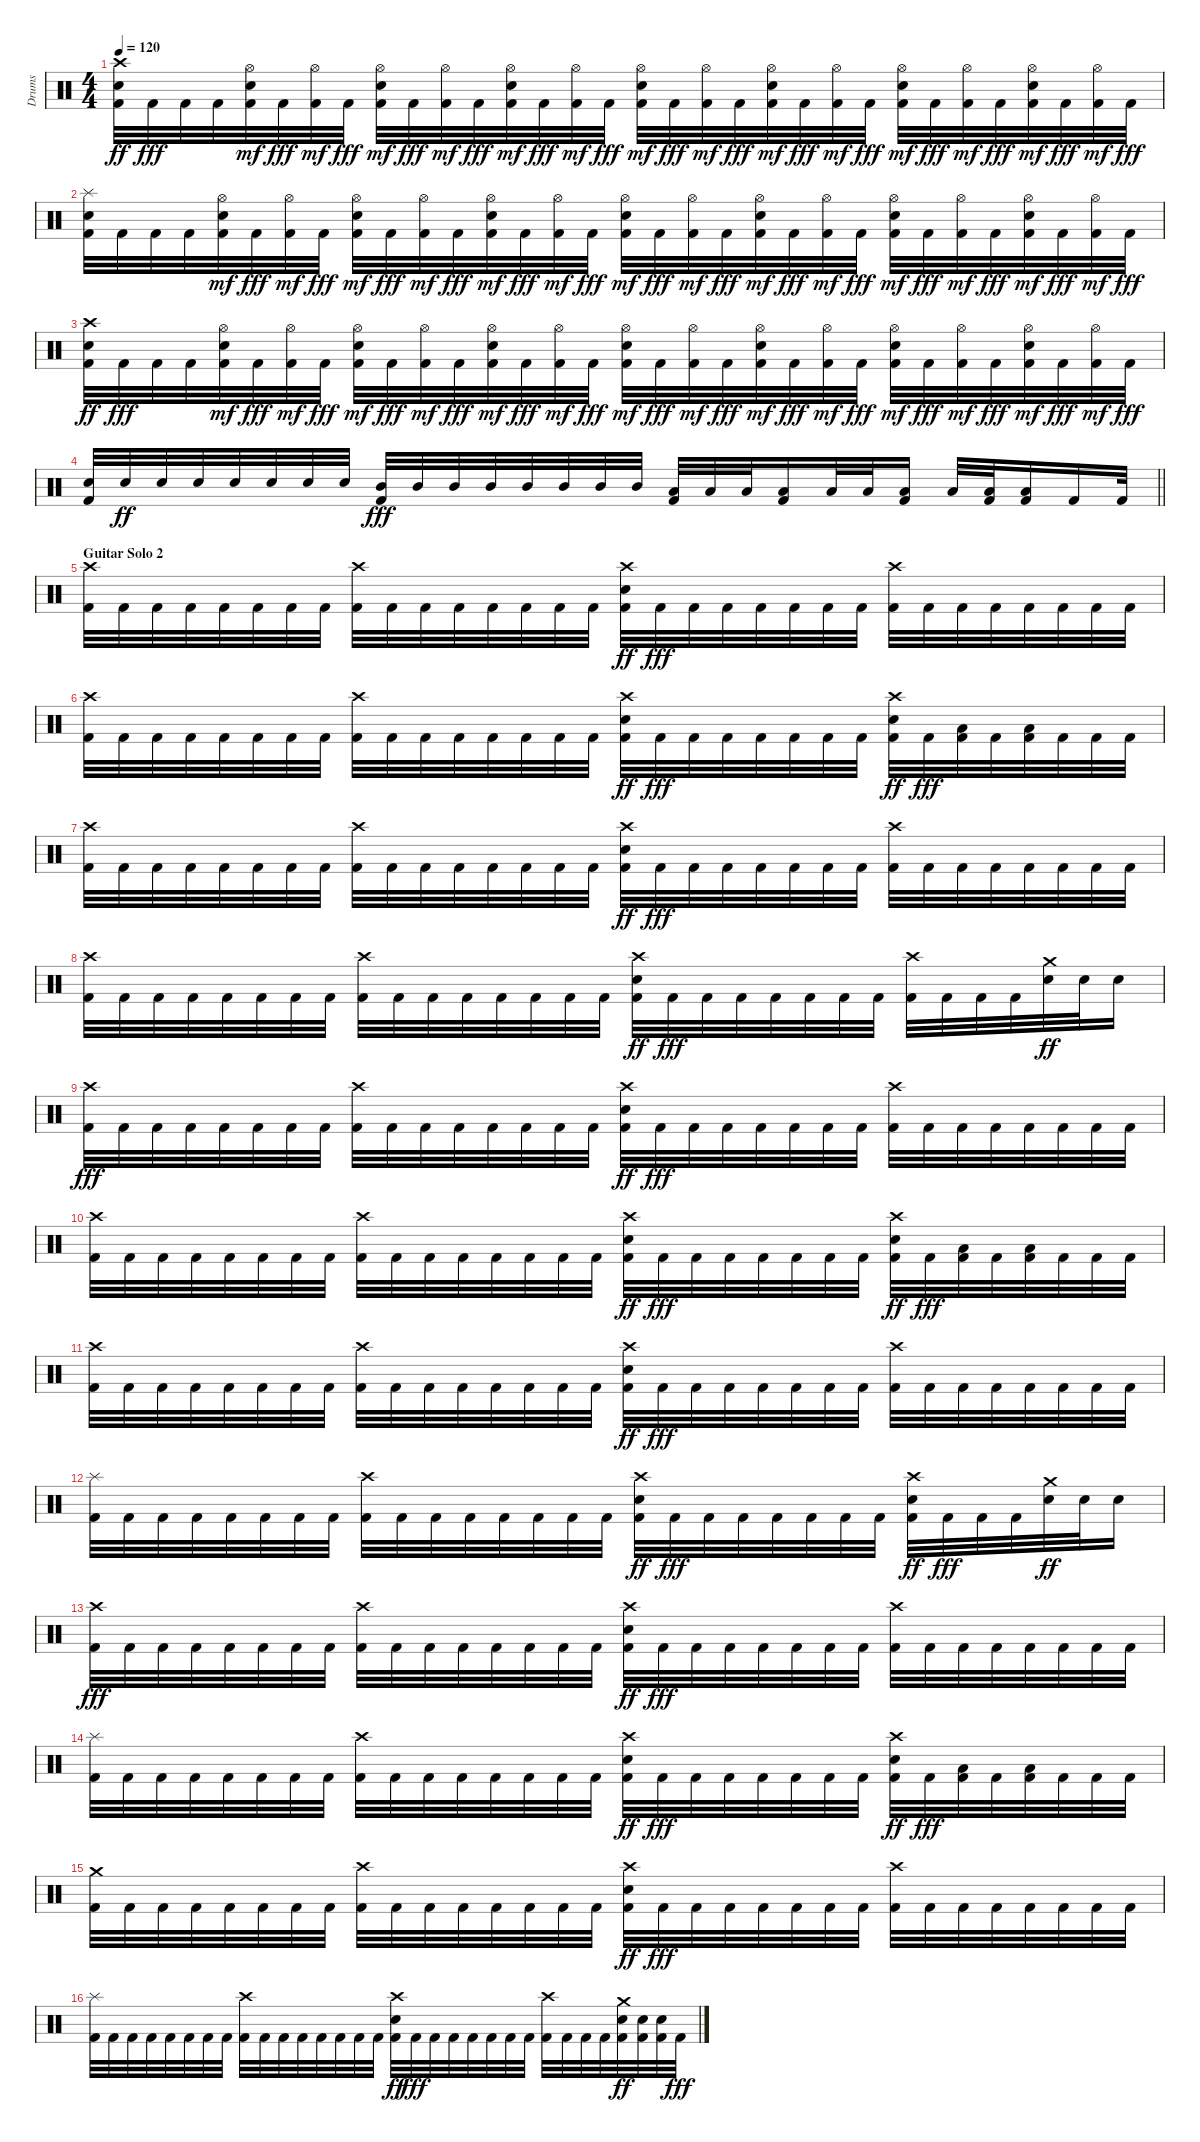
\track ("Drums" "Drums") {instrument percussion}
\staff {score}
\articulation defaults
\ts (4 4)
\tempo 120
\clef neutral
\ks c
("Kick (hit) 2" "Snare (hit) 2" "Crash high (hit)").32{dy ff} "Kick (hit) 2".32{dy fff} "Kick (hit) 2".32 "Kick (hit) 2".32 ("Kick (hit) 2" "Snare (hit) 2" "Hi-Hat (open)").32{dy mf} "Kick (hit) 2".32{dy fff} ("Kick (hit) 2" "Hi-Hat (open)").32{dy mf} "Kick (hit) 2".32{dy fff} ("Kick (hit) 2" "Snare (hit) 2" "Hi-Hat (open)").32{dy mf} "Kick (hit) 2".32{dy fff} ("Kick (hit) 2" "Hi-Hat (open)").32{dy mf} "Kick (hit) 2".32{dy fff} ("Kick (hit) 2" "Snare (hit) 2" "Hi-Hat (open)").32{dy mf} "Kick (hit) 2".32{dy fff} ("Kick (hit) 2" "Hi-Hat (open)").32{dy mf} "Kick (hit) 2".32{dy fff} ("Kick (hit) 2" "Snare (hit) 2" "Hi-Hat (open)").32{dy mf} "Kick (hit) 2".32{dy fff} ("Kick (hit) 2" "Hi-Hat (open)").32{dy mf} "Kick (hit) 2".32{dy fff} ("Kick (hit) 2" "Snare (hit) 2" "Hi-Hat (open)").32{dy mf} "Kick (hit) 2".32{dy fff} ("Kick (hit) 2" "Hi-Hat (open)").32{dy mf} "Kick (hit) 2".32{dy fff} ("Kick (hit) 2" "Snare (hit) 2" "Hi-Hat (open)").32{dy mf} "Kick (hit) 2".32{dy fff} ("Kick (hit) 2" "Hi-Hat (open)").32{dy mf} "Kick (hit) 2".32{dy fff} ("Kick (hit) 2" "Snare (hit) 2" "Hi-Hat (open)").32{dy mf} "Kick (hit) 2".32{dy fff} ("Kick (hit) 2" "Hi-Hat (open)").32{dy mf} "Kick (hit) 2".32{dy fff} |
("Kick (hit) 2" "Snare (hit) 2" "Splash (hit)").32 "Kick (hit) 2".32 "Kick (hit) 2".32 "Kick (hit) 2".32 ("Kick (hit) 2" "Snare (hit) 2" "Hi-Hat (open)").32{dy mf} "Kick (hit) 2".32{dy fff} ("Kick (hit) 2" "Hi-Hat (open)").32{dy mf} "Kick (hit) 2".32{dy fff} ("Kick (hit) 2" "Snare (hit) 2" "Hi-Hat (open)").32{dy mf} "Kick (hit) 2".32{dy fff} ("Kick (hit) 2" "Hi-Hat (open)").32{dy mf} "Kick (hit) 2".32{dy fff} ("Kick (hit) 2" "Snare (hit) 2" "Hi-Hat (open)").32{dy mf} "Kick (hit) 2".32{dy fff} ("Kick (hit) 2" "Hi-Hat (open)").32{dy mf} "Kick (hit) 2".32{dy fff} ("Kick (hit) 2" "Snare (hit) 2" "Hi-Hat (open)").32{dy mf} "Kick (hit) 2".32{dy fff} ("Kick (hit) 2" "Hi-Hat (open)").32{dy mf} "Kick (hit) 2".32{dy fff} ("Kick (hit) 2" "Snare (hit) 2" "Hi-Hat (open)").32{dy mf} "Kick (hit) 2".32{dy fff} ("Kick (hit) 2" "Hi-Hat (open)").32{dy mf} "Kick (hit) 2".32{dy fff} ("Kick (hit) 2" "Snare (hit) 2" "Hi-Hat (open)").32{dy mf} "Kick (hit) 2".32{dy fff} ("Kick (hit) 2" "Hi-Hat (open)").32{dy mf} "Kick (hit) 2".32{dy fff} ("Kick (hit) 2" "Snare (hit) 2" "Hi-Hat (open)").32{dy mf} "Kick (hit) 2".32{dy fff} ("Kick (hit) 2" "Hi-Hat (open)").32{dy mf} "Kick (hit) 2".32{dy fff} |
("Kick (hit) 2" "Snare (hit) 2" "Crash high (hit)").32{dy ff} "Kick (hit) 2".32{dy fff} "Kick (hit) 2".32 "Kick (hit) 2".32 ("Kick (hit) 2" "Snare (hit) 2" "Hi-Hat (open)").32{dy mf} "Kick (hit) 2".32{dy fff} ("Kick (hit) 2" "Hi-Hat (open)").32{dy mf} "Kick (hit) 2".32{dy fff} ("Kick (hit) 2" "Snare (hit) 2" "Hi-Hat (open)").32{dy mf} "Kick (hit) 2".32{dy fff} ("Kick (hit) 2" "Hi-Hat (open)").32{dy mf} "Kick (hit) 2".32{dy fff} ("Kick (hit) 2" "Snare (hit) 2" "Hi-Hat (open)").32{dy mf} "Kick (hit) 2".32{dy fff} ("Kick (hit) 2" "Hi-Hat (open)").32{dy mf} "Kick (hit) 2".32{dy fff} ("Kick (hit) 2" "Snare (hit) 2" "Hi-Hat (open)").32{dy mf} "Kick (hit) 2".32{dy fff} ("Kick (hit) 2" "Hi-Hat (open)").32{dy mf} "Kick (hit) 2".32{dy fff} ("Kick (hit) 2" "Snare (hit) 2" "Hi-Hat (open)").32{dy mf} "Kick (hit) 2".32{dy fff} ("Kick (hit) 2" "Hi-Hat (open)").32{dy mf} "Kick (hit) 2".32{dy fff} ("Kick (hit) 2" "Snare (hit) 2" "Hi-Hat (open)").32{dy mf} "Kick (hit) 2".32{dy fff} ("Kick (hit) 2" "Hi-Hat (open)").32{dy mf} "Kick (hit) 2".32{dy fff} ("Kick (hit) 2" "Snare (hit) 2" "Hi-Hat (open)").32{dy mf} "Kick (hit) 2".32{dy fff} ("Kick (hit) 2" "Hi-Hat (open)").32{dy mf} "Kick (hit) 2".32{dy fff} |
\barLineRight lightlight
("Kick (hit) 2" "Snare (hit) 2").32 "Snare (hit) 2".32{dy ff} "Snare (hit) 2".32 "Snare (hit) 2".32 "Snare (hit) 2".32 "Snare (hit) 2".32 "Snare (hit) 2".32 "Snare (hit) 2".32 ("Kick (hit) 2" "Mid Tom (hit)").32{dy fff} "Mid Tom (hit)".32 "Mid Tom (hit)".32 "Mid Tom (hit)".32 "Mid Tom (hit)".32 "Mid Tom (hit)".32 "Mid Tom (hit)".32 "Mid Tom (hit)".32 ("Kick (hit) 2" "Low Tom (hit)").32 "Low Tom (hit)".32 "Low Tom (hit)".32 ("Kick (hit) 2" "Low Tom (hit)").16 "Low Tom (hit)".32 "Low Tom (hit)".32 ("Kick (hit) 2" "Low Floor Tom (hit)").16 "Low Floor Tom (hit)".32 ("Kick (hit) 2" "Low Floor Tom (hit)").32 ("Kick (hit) 2" "Low Floor Tom (hit)").16 "Kick (hit) 2".16 "Kick (hit) 2".32 |
\section ("" "Guitar Solo 2")
("Kick (hit) 2" "Crash high (hit)").32 "Kick (hit) 2".32 "Kick (hit) 2".32 "Kick (hit) 2".32 "Kick (hit) 2".32 "Kick (hit) 2".32 "Kick (hit) 2".32 "Kick (hit) 2".32 ("Kick (hit) 2" "Crash high (hit)").32 "Kick (hit) 2".32 "Kick (hit) 2".32 "Kick (hit) 2".32 "Kick (hit) 2".32 "Kick (hit) 2".32 "Kick (hit) 2".32 "Kick (hit) 2".32 ("Kick (hit) 2" "Snare (hit) 2" "Crash high (hit)").32{dy ff} "Kick (hit) 2".32{dy fff} "Kick (hit) 2".32 "Kick (hit) 2".32 "Kick (hit) 2".32 "Kick (hit) 2".32 "Kick (hit) 2".32 "Kick (hit) 2".32 ("Kick (hit) 2" "Crash high (hit)").32 "Kick (hit) 2".32 "Kick (hit) 2".32 "Kick (hit) 2".32 "Kick (hit) 2".32 "Kick (hit) 2".32 "Kick (hit) 2".32 "Kick (hit) 2".32 |
("Kick (hit) 2" "Crash high (hit)").32 "Kick (hit) 2".32 "Kick (hit) 2".32 "Kick (hit) 2".32 "Kick (hit) 2".32 "Kick (hit) 2".32 "Kick (hit) 2".32 "Kick (hit) 2".32 ("Kick (hit) 2" "Crash high (hit)").32 "Kick (hit) 2".32 "Kick (hit) 2".32 "Kick (hit) 2".32 "Kick (hit) 2".32 "Kick (hit) 2".32 "Kick (hit) 2".32 "Kick (hit) 2".32 ("Kick (hit) 2" "Snare (hit) 2" "Crash high (hit)").32{dy ff} "Kick (hit) 2".32{dy fff} "Kick (hit) 2".32 "Kick (hit) 2".32 "Kick (hit) 2".32 "Kick (hit) 2".32 "Kick (hit) 2".32 "Kick (hit) 2".32 ("Kick (hit) 2" "Snare (hit) 2" "Crash high (hit)").32{dy ff} "Kick (hit) 2".32{dy fff} ("Kick (hit) 2" "Low Tom (hit)").32 "Kick (hit) 2".32 ("Kick (hit) 2" "Low Tom (hit)").32 "Kick (hit) 2".32 "Kick (hit) 2".32 "Kick (hit) 2".32 |
("Kick (hit) 2" "Crash high (hit)").32 "Kick (hit) 2".32 "Kick (hit) 2".32 "Kick (hit) 2".32 "Kick (hit) 2".32 "Kick (hit) 2".32 "Kick (hit) 2".32 "Kick (hit) 2".32 ("Kick (hit) 2" "Crash high (hit)").32 "Kick (hit) 2".32 "Kick (hit) 2".32 "Kick (hit) 2".32 "Kick (hit) 2".32 "Kick (hit) 2".32 "Kick (hit) 2".32 "Kick (hit) 2".32 ("Kick (hit) 2" "Snare (hit) 2" "Crash high (hit)").32{dy ff} "Kick (hit) 2".32{dy fff} "Kick (hit) 2".32 "Kick (hit) 2".32 "Kick (hit) 2".32 "Kick (hit) 2".32 "Kick (hit) 2".32 "Kick (hit) 2".32 ("Kick (hit) 2" "Crash high (hit)").32 "Kick (hit) 2".32 "Kick (hit) 2".32 "Kick (hit) 2".32 "Kick (hit) 2".32 "Kick (hit) 2".32 "Kick (hit) 2".32 "Kick (hit) 2".32 |
("Kick (hit) 2" "Crash high (hit)").32 "Kick (hit) 2".32 "Kick (hit) 2".32 "Kick (hit) 2".32 "Kick (hit) 2".32 "Kick (hit) 2".32 "Kick (hit) 2".32 "Kick (hit) 2".32 ("Kick (hit) 2" "Crash high (hit)").32 "Kick (hit) 2".32 "Kick (hit) 2".32 "Kick (hit) 2".32 "Kick (hit) 2".32 "Kick (hit) 2".32 "Kick (hit) 2".32 "Kick (hit) 2".32 ("Kick (hit) 2" "Snare (hit) 2" "Crash high (hit)").32{dy ff} "Kick (hit) 2".32{dy fff} "Kick (hit) 2".32 "Kick (hit) 2".32 "Kick (hit) 2".32 "Kick (hit) 2".32 "Kick (hit) 2".32 "Kick (hit) 2".32 ("Kick (hit) 2" "Crash high (hit)").32 "Kick (hit) 2".32 "Kick (hit) 2".32 "Kick (hit) 2".32 ("Snare (hit) 2" "Crash medium (hit)").32{dy ff} "Snare (hit) 2".32 "Snare (hit) 2".16 |
("Kick (hit) 2" "Crash high (hit)").32{dy fff} "Kick (hit) 2".32 "Kick (hit) 2".32 "Kick (hit) 2".32 "Kick (hit) 2".32 "Kick (hit) 2".32 "Kick (hit) 2".32 "Kick (hit) 2".32 ("Kick (hit) 2" "Crash high (hit)").32 "Kick (hit) 2".32 "Kick (hit) 2".32 "Kick (hit) 2".32 "Kick (hit) 2".32 "Kick (hit) 2".32 "Kick (hit) 2".32 "Kick (hit) 2".32 ("Kick (hit) 2" "Snare (hit) 2" "Crash high (hit)").32{dy ff} "Kick (hit) 2".32{dy fff} "Kick (hit) 2".32 "Kick (hit) 2".32 "Kick (hit) 2".32 "Kick (hit) 2".32 "Kick (hit) 2".32 "Kick (hit) 2".32 ("Kick (hit) 2" "Crash high (hit)").32 "Kick (hit) 2".32 "Kick (hit) 2".32 "Kick (hit) 2".32 "Kick (hit) 2".32 "Kick (hit) 2".32 "Kick (hit) 2".32 "Kick (hit) 2".32 |
("Kick (hit) 2" "Crash high (hit)").32 "Kick (hit) 2".32 "Kick (hit) 2".32 "Kick (hit) 2".32 "Kick (hit) 2".32 "Kick (hit) 2".32 "Kick (hit) 2".32 "Kick (hit) 2".32 ("Kick (hit) 2" "Crash high (hit)").32 "Kick (hit) 2".32 "Kick (hit) 2".32 "Kick (hit) 2".32 "Kick (hit) 2".32 "Kick (hit) 2".32 "Kick (hit) 2".32 "Kick (hit) 2".32 ("Kick (hit) 2" "Snare (hit) 2" "Crash high (hit)").32{dy ff} "Kick (hit) 2".32{dy fff} "Kick (hit) 2".32 "Kick (hit) 2".32 "Kick (hit) 2".32 "Kick (hit) 2".32 "Kick (hit) 2".32 "Kick (hit) 2".32 ("Kick (hit) 2" "Snare (hit) 2" "Crash high (hit)").32{dy ff} "Kick (hit) 2".32{dy fff} ("Kick (hit) 2" "Low Tom (hit)").32 "Kick (hit) 2".32 ("Kick (hit) 2" "Low Tom (hit)").32 "Kick (hit) 2".32 "Kick (hit) 2".32 "Kick (hit) 2".32 |
("Kick (hit) 2" "Crash high (hit)").32 "Kick (hit) 2".32 "Kick (hit) 2".32 "Kick (hit) 2".32 "Kick (hit) 2".32 "Kick (hit) 2".32 "Kick (hit) 2".32 "Kick (hit) 2".32 ("Kick (hit) 2" "Crash high (hit)").32 "Kick (hit) 2".32 "Kick (hit) 2".32 "Kick (hit) 2".32 "Kick (hit) 2".32 "Kick (hit) 2".32 "Kick (hit) 2".32 "Kick (hit) 2".32 ("Kick (hit) 2" "Snare (hit) 2" "Crash high (hit)").32{dy ff} "Kick (hit) 2".32{dy fff} "Kick (hit) 2".32 "Kick (hit) 2".32 "Kick (hit) 2".32 "Kick (hit) 2".32 "Kick (hit) 2".32 "Kick (hit) 2".32 ("Kick (hit) 2" "Crash high (hit)").32 "Kick (hit) 2".32 "Kick (hit) 2".32 "Kick (hit) 2".32 "Kick (hit) 2".32 "Kick (hit) 2".32 "Kick (hit) 2".32 "Kick (hit) 2".32 |
("Kick (hit) 2" "Splash (hit)").32 "Kick (hit) 2".32 "Kick (hit) 2".32 "Kick (hit) 2".32 "Kick (hit) 2".32 "Kick (hit) 2".32 "Kick (hit) 2".32 "Kick (hit) 2".32 ("Kick (hit) 2" "Crash high (hit)").32 "Kick (hit) 2".32 "Kick (hit) 2".32 "Kick (hit) 2".32 "Kick (hit) 2".32 "Kick (hit) 2".32 "Kick (hit) 2".32 "Kick (hit) 2".32 ("Kick (hit) 2" "Snare (hit) 2" "Crash high (hit)").32{dy ff} "Kick (hit) 2".32{dy fff} "Kick (hit) 2".32 "Kick (hit) 2".32 "Kick (hit) 2".32 "Kick (hit) 2".32 "Kick (hit) 2".32 "Kick (hit) 2".32 ("Kick (hit) 2" "Snare (hit) 2" "Crash high (hit)").32{dy ff} "Kick (hit) 2".32{dy fff} "Kick (hit) 2".32 "Kick (hit) 2".32 ("Snare (hit) 2" "Crash medium (hit)").32{dy ff} "Snare (hit) 2".32 "Snare (hit) 2".16 |
("Kick (hit) 2" "Crash high (hit)").32{dy fff} "Kick (hit) 2".32 "Kick (hit) 2".32 "Kick (hit) 2".32 "Kick (hit) 2".32 "Kick (hit) 2".32 "Kick (hit) 2".32 "Kick (hit) 2".32 ("Kick (hit) 2" "Crash high (hit)").32 "Kick (hit) 2".32 "Kick (hit) 2".32 "Kick (hit) 2".32 "Kick (hit) 2".32 "Kick (hit) 2".32 "Kick (hit) 2".32 "Kick (hit) 2".32 ("Kick (hit) 2" "Snare (hit) 2" "Crash high (hit)").32{dy ff} "Kick (hit) 2".32{dy fff} "Kick (hit) 2".32 "Kick (hit) 2".32 "Kick (hit) 2".32 "Kick (hit) 2".32 "Kick (hit) 2".32 "Kick (hit) 2".32 ("Kick (hit) 2" "Crash high (hit)").32 "Kick (hit) 2".32 "Kick (hit) 2".32 "Kick (hit) 2".32 "Kick (hit) 2".32 "Kick (hit) 2".32 "Kick (hit) 2".32 "Kick (hit) 2".32 |
("Kick (hit) 2" "Splash (hit)").32 "Kick (hit) 2".32 "Kick (hit) 2".32 "Kick (hit) 2".32 "Kick (hit) 2".32 "Kick (hit) 2".32 "Kick (hit) 2".32 "Kick (hit) 2".32 ("Kick (hit) 2" "Crash high (hit)").32 "Kick (hit) 2".32 "Kick (hit) 2".32 "Kick (hit) 2".32 "Kick (hit) 2".32 "Kick (hit) 2".32 "Kick (hit) 2".32 "Kick (hit) 2".32 ("Kick (hit) 2" "Snare (hit) 2" "Crash high (hit)").32{dy ff} "Kick (hit) 2".32{dy fff} "Kick (hit) 2".32 "Kick (hit) 2".32 "Kick (hit) 2".32 "Kick (hit) 2".32 "Kick (hit) 2".32 "Kick (hit) 2".32 ("Kick (hit) 2" "Snare (hit) 2" "Crash high (hit)").32{dy ff} "Kick (hit) 2".32{dy fff} ("Kick (hit) 2" "Low Tom (hit)").32 "Kick (hit) 2".32 ("Kick (hit) 2" "Low Tom (hit)").32 "Kick (hit) 2".32 "Kick (hit) 2".32 "Kick (hit) 2".32 |
("Kick (hit) 2" "Crash medium (hit)").32 "Kick (hit) 2".32 "Kick (hit) 2".32 "Kick (hit) 2".32 "Kick (hit) 2".32 "Kick (hit) 2".32 "Kick (hit) 2".32 "Kick (hit) 2".32 ("Kick (hit) 2" "Crash high (hit)").32 "Kick (hit) 2".32 "Kick (hit) 2".32 "Kick (hit) 2".32 "Kick (hit) 2".32 "Kick (hit) 2".32 "Kick (hit) 2".32 "Kick (hit) 2".32 ("Kick (hit) 2" "Snare (hit) 2" "Crash high (hit)").32{dy ff} "Kick (hit) 2".32{dy fff} "Kick (hit) 2".32 "Kick (hit) 2".32 "Kick (hit) 2".32 "Kick (hit) 2".32 "Kick (hit) 2".32 "Kick (hit) 2".32 ("Kick (hit) 2" "Crash high (hit)").32 "Kick (hit) 2".32 "Kick (hit) 2".32 "Kick (hit) 2".32 "Kick (hit) 2".32 "Kick (hit) 2".32 "Kick (hit) 2".32 "Kick (hit) 2".32 |
("Kick (hit) 2" "Splash (hit)").32 "Kick (hit) 2".32 "Kick (hit) 2".32 "Kick (hit) 2".32 "Kick (hit) 2".32 "Kick (hit) 2".32 "Kick (hit) 2".32 "Kick (hit) 2".32 ("Kick (hit) 2" "Crash high (hit)").32 "Kick (hit) 2".32 "Kick (hit) 2".32 "Kick (hit) 2".32 "Kick (hit) 2".32 "Kick (hit) 2".32 "Kick (hit) 2".32 "Kick (hit) 2".32 ("Kick (hit) 2" "Snare (hit) 2" "Crash high (hit)").32{dy ff} "Kick (hit) 2".32{dy fff} "Kick (hit) 2".32 "Kick (hit) 2".32 "Kick (hit) 2".32 "Kick (hit) 2".32 "Kick (hit) 2".32 "Kick (hit) 2".32 ("Kick (hit) 2" "Crash high (hit)").32 "Kick (hit) 2".32 "Kick (hit) 2".32 "Kick (hit) 2".32 ("Kick (hit) 2" "Snare (hit) 2" "Crash medium (hit)").32{dy ff} ("Kick (hit) 2" "Snare (hit) 2").32 ("Kick (hit) 2" "Snare (hit) 2").32 "Kick (hit) 2".32{dy fff}
